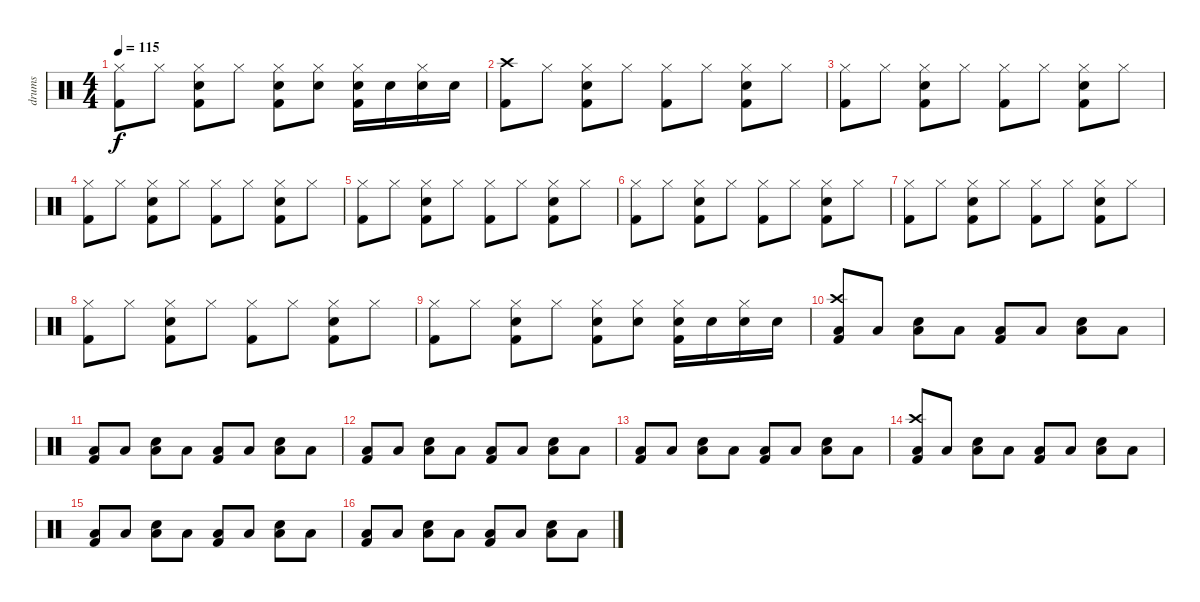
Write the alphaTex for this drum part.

\track ("drums" "drums") {instrument percussion}
\staff {score}
\articulation defaults
\ts (4 4)
\tempo 115
\clef neutral
\ks c
("Hi-Hat (closed)" "Kick (hit) 2").8{dy f} "Hi-Hat (closed)".8 ("Hi-Hat (closed)" "Electric Snare (hit)" "Kick (hit) 2").8 "Hi-Hat (closed)".8 ("Hi-Hat (closed)" "Electric Snare (hit)" "Kick (hit) 2").8 ("Hi-Hat (closed)" "Electric Snare (hit)").8 ("Hi-Hat (closed)" "Electric Snare (hit)" "Kick (hit) 2").16 "Electric Snare (hit)".16 ("Hi-Hat (closed)" "Electric Snare (hit)").16 "Electric Snare (hit)".16 |
("Crash high (hit)" "Kick (hit) 2").8 "Hi-Hat (closed)".8 ("Hi-Hat (closed)" "Electric Snare (hit)" "Kick (hit) 2").8 "Hi-Hat (closed)".8 ("Hi-Hat (closed)" "Kick (hit) 2").8 "Hi-Hat (closed)".8 ("Hi-Hat (closed)" "Electric Snare (hit)" "Kick (hit) 2").8 "Hi-Hat (closed)".8 |
("Hi-Hat (closed)" "Kick (hit) 2").8 "Hi-Hat (closed)".8 ("Hi-Hat (closed)" "Electric Snare (hit)" "Kick (hit) 2").8 "Hi-Hat (closed)".8 ("Hi-Hat (closed)" "Kick (hit) 2").8 "Hi-Hat (closed)".8 ("Hi-Hat (closed)" "Electric Snare (hit)" "Kick (hit) 2").8 "Hi-Hat (closed)".8 |
("Hi-Hat (closed)" "Kick (hit) 2").8 "Hi-Hat (closed)".8 ("Hi-Hat (closed)" "Electric Snare (hit)" "Kick (hit) 2").8 "Hi-Hat (closed)".8 ("Hi-Hat (closed)" "Kick (hit) 2").8 "Hi-Hat (closed)".8 ("Hi-Hat (closed)" "Electric Snare (hit)" "Kick (hit) 2").8 "Hi-Hat (closed)".8 |
("Hi-Hat (closed)" "Kick (hit) 2").8 "Hi-Hat (closed)".8 ("Hi-Hat (closed)" "Electric Snare (hit)" "Kick (hit) 2").8 "Hi-Hat (closed)".8 ("Hi-Hat (closed)" "Kick (hit) 2").8 "Hi-Hat (closed)".8 ("Hi-Hat (closed)" "Electric Snare (hit)" "Kick (hit) 2").8 "Hi-Hat (closed)".8 |
("Hi-Hat (closed)" "Kick (hit) 2").8 "Hi-Hat (closed)".8 ("Hi-Hat (closed)" "Electric Snare (hit)" "Kick (hit) 2").8 "Hi-Hat (closed)".8 ("Hi-Hat (closed)" "Kick (hit) 2").8 "Hi-Hat (closed)".8 ("Hi-Hat (closed)" "Electric Snare (hit)" "Kick (hit) 2").8 "Hi-Hat (closed)".8 |
("Hi-Hat (closed)" "Kick (hit) 2").8 "Hi-Hat (closed)".8 ("Hi-Hat (closed)" "Electric Snare (hit)" "Kick (hit) 2").8 "Hi-Hat (closed)".8 ("Hi-Hat (closed)" "Kick (hit) 2").8 "Hi-Hat (closed)".8 ("Hi-Hat (closed)" "Electric Snare (hit)" "Kick (hit) 2").8 "Hi-Hat (closed)".8 |
("Hi-Hat (closed)" "Kick (hit) 2").8 "Hi-Hat (closed)".8 ("Hi-Hat (closed)" "Electric Snare (hit)" "Kick (hit) 2").8 "Hi-Hat (closed)".8 ("Hi-Hat (closed)" "Kick (hit) 2").8 "Hi-Hat (closed)".8 ("Hi-Hat (closed)" "Electric Snare (hit)" "Kick (hit) 2").8 "Hi-Hat (closed)".8 |
("Hi-Hat (closed)" "Kick (hit) 2").8 "Hi-Hat (closed)".8 ("Hi-Hat (closed)" "Electric Snare (hit)" "Kick (hit) 2").8 "Hi-Hat (closed)".8 ("Hi-Hat (closed)" "Electric Snare (hit)" "Kick (hit) 2").8 ("Hi-Hat (closed)" "Electric Snare (hit)").8 ("Hi-Hat (closed)" "Electric Snare (hit)" "Kick (hit) 2").16 "Electric Snare (hit)".16 ("Hi-Hat (closed)" "Electric Snare (hit)").16 "Electric Snare (hit)".16 |
("Crash high (hit)" "Low Floor Tom (hit)" "Kick (hit) 2").8 "Low Floor Tom (hit)".8 ("Low Floor Tom (hit)" "Electric Snare (hit)").8 "Low Floor Tom (hit)".8 ("Low Floor Tom (hit)" "Kick (hit) 2").8 "Low Floor Tom (hit)".8 ("Low Floor Tom (hit)" "Electric Snare (hit)").8 "Low Floor Tom (hit)".8 |
("Low Floor Tom (hit)" "Kick (hit) 2").8 "Low Floor Tom (hit)".8 ("Low Floor Tom (hit)" "Electric Snare (hit)").8 "Low Floor Tom (hit)".8 ("Low Floor Tom (hit)" "Kick (hit) 2").8 "Low Floor Tom (hit)".8 ("Low Floor Tom (hit)" "Electric Snare (hit)").8 "Low Floor Tom (hit)".8 |
("Low Floor Tom (hit)" "Kick (hit) 2").8 "Low Floor Tom (hit)".8 ("Low Floor Tom (hit)" "Electric Snare (hit)").8 "Low Floor Tom (hit)".8 ("Low Floor Tom (hit)" "Kick (hit) 2").8 "Low Floor Tom (hit)".8 ("Low Floor Tom (hit)" "Electric Snare (hit)").8 "Low Floor Tom (hit)".8 |
("Low Floor Tom (hit)" "Kick (hit) 2").8 "Low Floor Tom (hit)".8 ("Low Floor Tom (hit)" "Electric Snare (hit)").8 "Low Floor Tom (hit)".8 ("Low Floor Tom (hit)" "Kick (hit) 2").8 "Low Floor Tom (hit)".8 ("Low Floor Tom (hit)" "Electric Snare (hit)").8 "Low Floor Tom (hit)".8 |
("Crash high (hit)" "Low Floor Tom (hit)" "Kick (hit) 2").8 "Low Floor Tom (hit)".8 ("Low Floor Tom (hit)" "Electric Snare (hit)").8 "Low Floor Tom (hit)".8 ("Low Floor Tom (hit)" "Kick (hit) 2").8 "Low Floor Tom (hit)".8 ("Low Floor Tom (hit)" "Electric Snare (hit)").8 "Low Floor Tom (hit)".8 |
("Low Floor Tom (hit)" "Kick (hit) 2").8 "Low Floor Tom (hit)".8 ("Low Floor Tom (hit)" "Electric Snare (hit)").8 "Low Floor Tom (hit)".8 ("Low Floor Tom (hit)" "Kick (hit) 2").8 "Low Floor Tom (hit)".8 ("Low Floor Tom (hit)" "Electric Snare (hit)").8 "Low Floor Tom (hit)".8 |
("Low Floor Tom (hit)" "Kick (hit) 2").8 "Low Floor Tom (hit)".8 ("Low Floor Tom (hit)" "Electric Snare (hit)").8 "Low Floor Tom (hit)".8 ("Low Floor Tom (hit)" "Kick (hit) 2").8 "Low Floor Tom (hit)".8 ("Low Floor Tom (hit)" "Electric Snare (hit)").8 "Low Floor Tom (hit)".8
